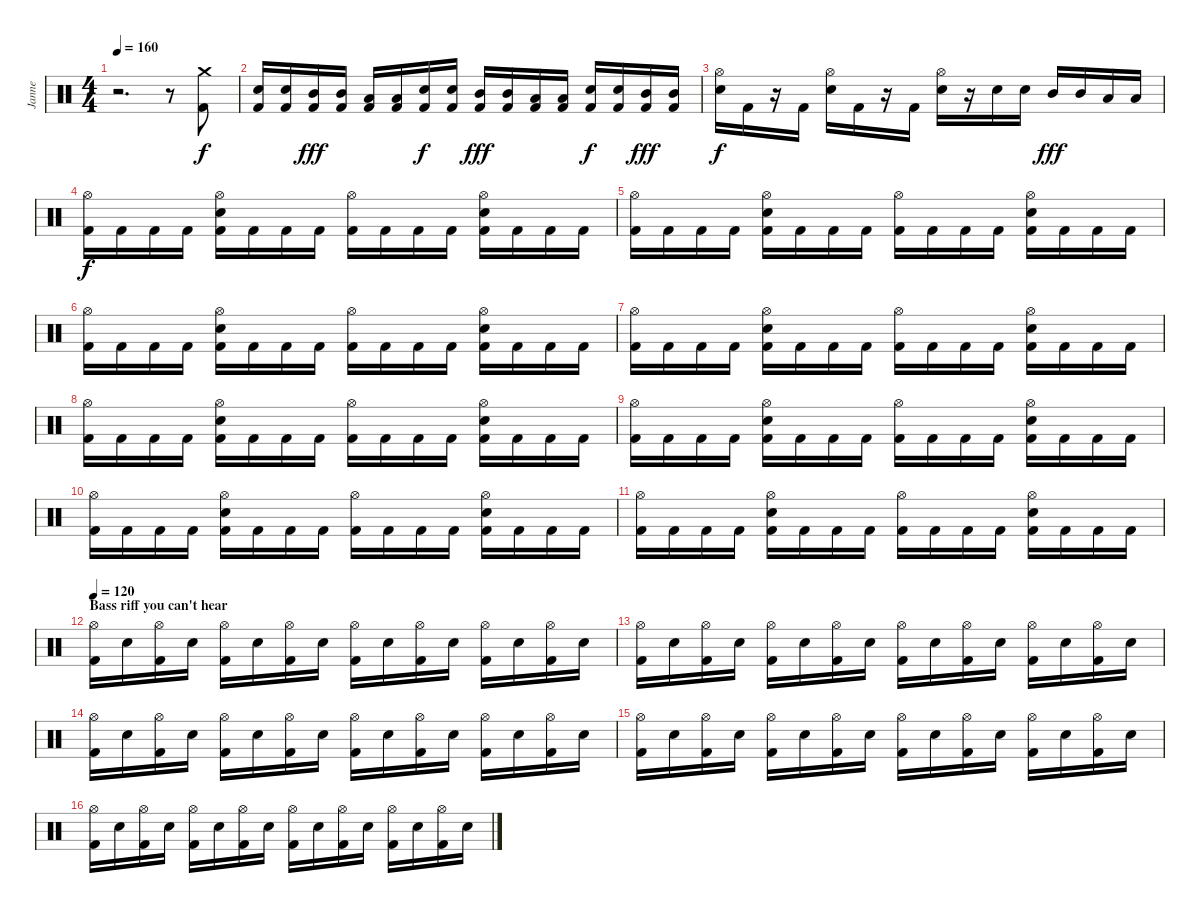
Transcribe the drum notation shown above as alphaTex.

\track ("Janne" "Janne") {instrument percussion}
\staff {score}
\articulation defaults
\ts (4 4)
\tempo 160
\clef neutral
\ks c
r.2{d dy fff} r.8 ("Crash medium (hit)" "Kick (hit) 2").8{dy f} |
("Electric Snare (hit)" "Kick (hit) 2").16 ("Electric Snare (hit)" "Kick (hit) 2").16 ("Mid Tom (hit)" "Kick (hit) 2").16{dy fff} ("Mid Tom (hit)" "Kick (hit) 2").16 ("Low Tom (hit)" "Kick (hit) 2").16 ("Low Tom (hit)" "Kick (hit) 2").16 ("Electric Snare (hit)" "Kick (hit) 2").16{dy f} ("Electric Snare (hit)" "Kick (hit) 2").16 ("Mid Tom (hit)" "Kick (hit) 2").16{dy fff} ("Mid Tom (hit)" "Kick (hit) 2").16 ("Low Tom (hit)" "Kick (hit) 2").16 ("Low Tom (hit)" "Kick (hit) 2").16 ("Electric Snare (hit)" "Kick (hit) 2").16{dy f} ("Electric Snare (hit)" "Kick (hit) 2").16 ("Mid Tom (hit)" "Kick (hit) 2").16{dy fff} ("Mid Tom (hit)" "Kick (hit) 2").16 |
("Hi-Hat (open)" "Electric Snare (hit)").16{dy f} "Kick (hit) 2".16 r.16 "Kick (hit) 2".16 ("Hi-Hat (open)" "Electric Snare (hit)").16 "Kick (hit) 2".16 r.16 "Kick (hit) 2".16 ("Hi-Hat (open)" "Electric Snare (hit)").16 r.16 "Electric Snare (hit)".16 "Electric Snare (hit)".16 "Mid Tom (hit)".16{dy fff} "Mid Tom (hit)".16 "Low Tom (hit)".16 "Low Tom (hit)".16 |
("Hi-Hat (open)" "Kick (hit) 2").16{dy f} "Kick (hit) 2".16 "Kick (hit) 2".16 "Kick (hit) 2".16 ("Hi-Hat (open)" "Electric Snare (hit)" "Kick (hit) 2").16 "Kick (hit) 2".16 "Kick (hit) 2".16 "Kick (hit) 2".16 ("Hi-Hat (open)" "Kick (hit) 2").16 "Kick (hit) 2".16 "Kick (hit) 2".16 "Kick (hit) 2".16 ("Hi-Hat (open)" "Electric Snare (hit)" "Kick (hit) 2").16 "Kick (hit) 2".16 "Kick (hit) 2".16 "Kick (hit) 2".16 |
("Hi-Hat (open)" "Kick (hit) 2").16 "Kick (hit) 2".16 "Kick (hit) 2".16 "Kick (hit) 2".16 ("Hi-Hat (open)" "Electric Snare (hit)" "Kick (hit) 2").16 "Kick (hit) 2".16 "Kick (hit) 2".16 "Kick (hit) 2".16 ("Hi-Hat (open)" "Kick (hit) 2").16 "Kick (hit) 2".16 "Kick (hit) 2".16 "Kick (hit) 2".16 ("Hi-Hat (open)" "Electric Snare (hit)" "Kick (hit) 2").16 "Kick (hit) 2".16 "Kick (hit) 2".16 "Kick (hit) 2".16 |
("Hi-Hat (open)" "Kick (hit) 2").16 "Kick (hit) 2".16 "Kick (hit) 2".16 "Kick (hit) 2".16 ("Hi-Hat (open)" "Electric Snare (hit)" "Kick (hit) 2").16 "Kick (hit) 2".16 "Kick (hit) 2".16 "Kick (hit) 2".16 ("Hi-Hat (open)" "Kick (hit) 2").16 "Kick (hit) 2".16 "Kick (hit) 2".16 "Kick (hit) 2".16 ("Hi-Hat (open)" "Electric Snare (hit)" "Kick (hit) 2").16 "Kick (hit) 2".16 "Kick (hit) 2".16 "Kick (hit) 2".16 |
("Hi-Hat (open)" "Kick (hit) 2").16 "Kick (hit) 2".16 "Kick (hit) 2".16 "Kick (hit) 2".16 ("Hi-Hat (open)" "Electric Snare (hit)" "Kick (hit) 2").16 "Kick (hit) 2".16 "Kick (hit) 2".16 "Kick (hit) 2".16 ("Hi-Hat (open)" "Kick (hit) 2").16 "Kick (hit) 2".16 "Kick (hit) 2".16 "Kick (hit) 2".16 ("Hi-Hat (open)" "Electric Snare (hit)" "Kick (hit) 2").16 "Kick (hit) 2".16 "Kick (hit) 2".16 "Kick (hit) 2".16 |
("Hi-Hat (open)" "Kick (hit) 2").16 "Kick (hit) 2".16 "Kick (hit) 2".16 "Kick (hit) 2".16 ("Hi-Hat (open)" "Electric Snare (hit)" "Kick (hit) 2").16 "Kick (hit) 2".16 "Kick (hit) 2".16 "Kick (hit) 2".16 ("Hi-Hat (open)" "Kick (hit) 2").16 "Kick (hit) 2".16 "Kick (hit) 2".16 "Kick (hit) 2".16 ("Hi-Hat (open)" "Electric Snare (hit)" "Kick (hit) 2").16 "Kick (hit) 2".16 "Kick (hit) 2".16 "Kick (hit) 2".16 |
("Hi-Hat (open)" "Kick (hit) 2").16 "Kick (hit) 2".16 "Kick (hit) 2".16 "Kick (hit) 2".16 ("Hi-Hat (open)" "Electric Snare (hit)" "Kick (hit) 2").16 "Kick (hit) 2".16 "Kick (hit) 2".16 "Kick (hit) 2".16 ("Hi-Hat (open)" "Kick (hit) 2").16 "Kick (hit) 2".16 "Kick (hit) 2".16 "Kick (hit) 2".16 ("Hi-Hat (open)" "Electric Snare (hit)" "Kick (hit) 2").16 "Kick (hit) 2".16 "Kick (hit) 2".16 "Kick (hit) 2".16 |
("Hi-Hat (open)" "Kick (hit) 2").16 "Kick (hit) 2".16 "Kick (hit) 2".16 "Kick (hit) 2".16 ("Hi-Hat (open)" "Electric Snare (hit)" "Kick (hit) 2").16 "Kick (hit) 2".16 "Kick (hit) 2".16 "Kick (hit) 2".16 ("Hi-Hat (open)" "Kick (hit) 2").16 "Kick (hit) 2".16 "Kick (hit) 2".16 "Kick (hit) 2".16 ("Hi-Hat (open)" "Electric Snare (hit)" "Kick (hit) 2").16 "Kick (hit) 2".16 "Kick (hit) 2".16 "Kick (hit) 2".16 |
("Hi-Hat (open)" "Kick (hit) 2").16 "Kick (hit) 2".16 "Kick (hit) 2".16 "Kick (hit) 2".16 ("Hi-Hat (open)" "Electric Snare (hit)" "Kick (hit) 2").16 "Kick (hit) 2".16 "Kick (hit) 2".16 "Kick (hit) 2".16 ("Hi-Hat (open)" "Kick (hit) 2").16 "Kick (hit) 2".16 "Kick (hit) 2".16 "Kick (hit) 2".16 ("Hi-Hat (open)" "Electric Snare (hit)" "Kick (hit) 2").16 "Kick (hit) 2".16 "Kick (hit) 2".16 "Kick (hit) 2".16 |
\section ("" "Bass riff you can't hear")
\tempo 120
("Hi-Hat (open)" "Kick (hit) 2").16 "Electric Snare (hit)".16 ("Hi-Hat (open)" "Kick (hit) 2").16 "Electric Snare (hit)".16 ("Hi-Hat (open)" "Kick (hit) 2").16 "Electric Snare (hit)".16 ("Hi-Hat (open)" "Kick (hit) 2").16 "Electric Snare (hit)".16 ("Hi-Hat (open)" "Kick (hit) 2").16 "Electric Snare (hit)".16 ("Hi-Hat (open)" "Kick (hit) 2").16 "Electric Snare (hit)".16 ("Hi-Hat (open)" "Kick (hit) 2").16 "Electric Snare (hit)".16 ("Hi-Hat (open)" "Kick (hit) 2").16 "Electric Snare (hit)".16 |
("Hi-Hat (open)" "Kick (hit) 2").16 "Electric Snare (hit)".16 ("Hi-Hat (open)" "Kick (hit) 2").16 "Electric Snare (hit)".16 ("Hi-Hat (open)" "Kick (hit) 2").16 "Electric Snare (hit)".16 ("Hi-Hat (open)" "Kick (hit) 2").16 "Electric Snare (hit)".16 ("Hi-Hat (open)" "Kick (hit) 2").16 "Electric Snare (hit)".16 ("Hi-Hat (open)" "Kick (hit) 2").16 "Electric Snare (hit)".16 ("Hi-Hat (open)" "Kick (hit) 2").16 "Electric Snare (hit)".16 ("Hi-Hat (open)" "Kick (hit) 2").16 "Electric Snare (hit)".16 |
("Hi-Hat (open)" "Kick (hit) 2").16 "Electric Snare (hit)".16 ("Hi-Hat (open)" "Kick (hit) 2").16 "Electric Snare (hit)".16 ("Hi-Hat (open)" "Kick (hit) 2").16 "Electric Snare (hit)".16 ("Hi-Hat (open)" "Kick (hit) 2").16 "Electric Snare (hit)".16 ("Hi-Hat (open)" "Kick (hit) 2").16 "Electric Snare (hit)".16 ("Hi-Hat (open)" "Kick (hit) 2").16 "Electric Snare (hit)".16 ("Hi-Hat (open)" "Kick (hit) 2").16 "Electric Snare (hit)".16 ("Hi-Hat (open)" "Kick (hit) 2").16 "Electric Snare (hit)".16 |
("Hi-Hat (open)" "Kick (hit) 2").16 "Electric Snare (hit)".16 ("Hi-Hat (open)" "Kick (hit) 2").16 "Electric Snare (hit)".16 ("Hi-Hat (open)" "Kick (hit) 2").16 "Electric Snare (hit)".16 ("Hi-Hat (open)" "Kick (hit) 2").16 "Electric Snare (hit)".16 ("Hi-Hat (open)" "Kick (hit) 2").16 "Electric Snare (hit)".16 ("Hi-Hat (open)" "Kick (hit) 2").16 "Electric Snare (hit)".16 ("Hi-Hat (open)" "Kick (hit) 2").16 "Electric Snare (hit)".16 ("Hi-Hat (open)" "Kick (hit) 2").16 "Electric Snare (hit)".16 |
("Hi-Hat (open)" "Kick (hit) 2").16 "Electric Snare (hit)".16 ("Hi-Hat (open)" "Kick (hit) 2").16 "Electric Snare (hit)".16 ("Hi-Hat (open)" "Kick (hit) 2").16 "Electric Snare (hit)".16 ("Hi-Hat (open)" "Kick (hit) 2").16 "Electric Snare (hit)".16 ("Hi-Hat (open)" "Kick (hit) 2").16 "Electric Snare (hit)".16 ("Hi-Hat (open)" "Kick (hit) 2").16 "Electric Snare (hit)".16 ("Hi-Hat (open)" "Kick (hit) 2").16 "Electric Snare (hit)".16 ("Hi-Hat (open)" "Kick (hit) 2").16 "Electric Snare (hit)".16
